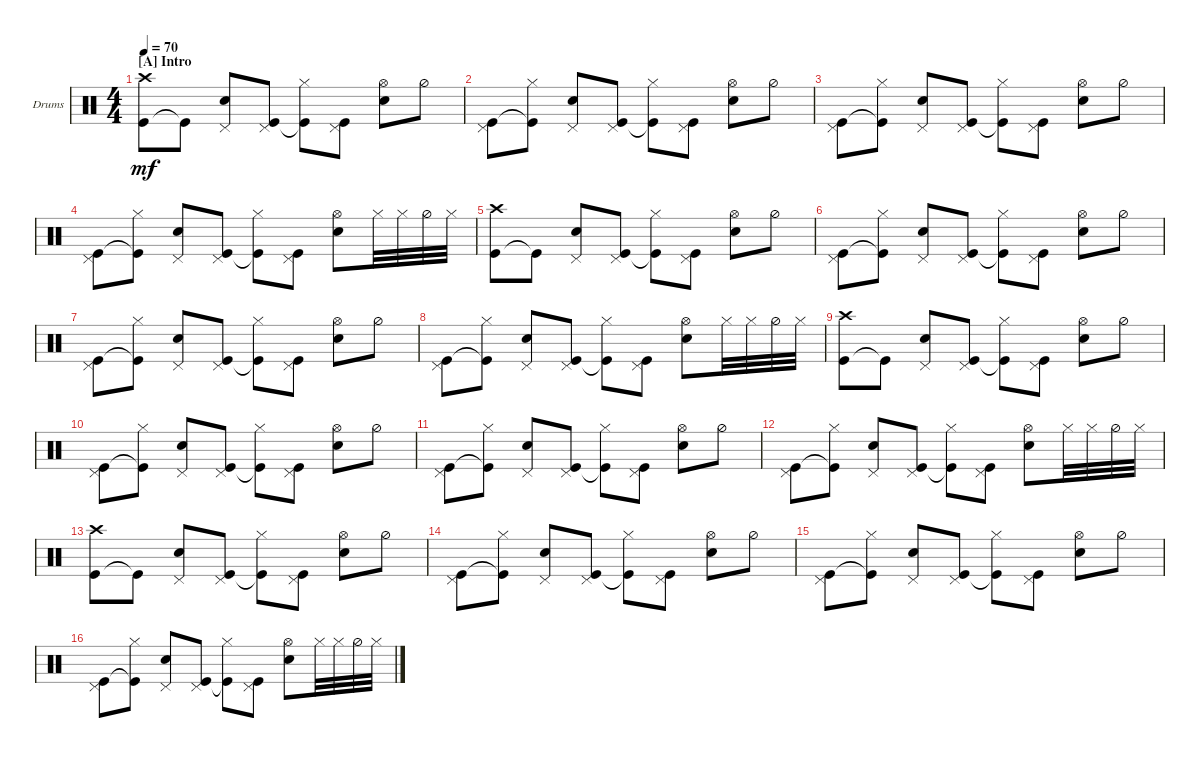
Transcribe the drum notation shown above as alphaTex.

\defaultSystemsLayout 4
\bracketExtendMode groupsimilarinstruments
\firstSystemTrackNameOrientation horizontal
\otherSystemsTrackNameOrientation horizontal
\track ("Drum" "Drums") {multiBarRest instrument percussion}
\staff {score}
\articulation defaults
\ts (4 4)
\section ("A" "Intro")
\tempo 70
\clef neutral
\ks c
("Kick (hit)" "Crash high (hit)").8{dy mf} "Kick (hit)"{t}.8 ("Snare (hit) 2" "Pedal Hi-Hat (hit)").8 ("Kick (hit)" "Pedal Hi-Hat (hit)").8 ("Kick (hit)"{t} "Hi-Hat (closed)").8 ("Kick (hit)" "Pedal Hi-Hat (hit)").8 ("Snare (hit) 2" "Hi-Hat (open)").8 "Hi-Hat (half)".8 |
("Kick (hit)" "Pedal Hi-Hat (hit)").8 ("Kick (hit)"{t} "Hi-Hat (closed)").8 ("Snare (hit) 2" "Pedal Hi-Hat (hit)").8 ("Kick (hit)" "Pedal Hi-Hat (hit)").8 ("Kick (hit)"{t} "Hi-Hat (closed)").8 ("Kick (hit)" "Pedal Hi-Hat (hit)").8 ("Snare (hit) 2" "Hi-Hat (open)").8 "Hi-Hat (half)".8 |
("Kick (hit)" "Pedal Hi-Hat (hit)").8 ("Kick (hit)"{t} "Hi-Hat (closed)").8 ("Snare (hit) 2" "Pedal Hi-Hat (hit)").8 ("Kick (hit)" "Pedal Hi-Hat (hit)").8 ("Kick (hit)"{t} "Hi-Hat (closed)").8 ("Kick (hit)" "Pedal Hi-Hat (hit)").8 ("Snare (hit) 2" "Hi-Hat (open)").8 "Hi-Hat (half)".8 |
("Kick (hit)" "Pedal Hi-Hat (hit)").8 ("Kick (hit)"{t} "Hi-Hat (closed)").8 ("Snare (hit) 2" "Pedal Hi-Hat (hit)").8 ("Kick (hit)" "Pedal Hi-Hat (hit)").8 ("Kick (hit)"{t} "Hi-Hat (closed)").8 ("Kick (hit)" "Pedal Hi-Hat (hit)").8 ("Snare (hit) 2" "Hi-Hat (open)").8 "Hi-Hat (closed)".32 "Hi-Hat (closed)".32 "Hi-Hat (half)".32 "Hi-Hat (closed)".32 |
("Kick (hit)" "Crash high (hit)").8 "Kick (hit)"{t}.8 ("Snare (hit) 2" "Pedal Hi-Hat (hit)").8 ("Kick (hit)" "Pedal Hi-Hat (hit)").8 ("Kick (hit)"{t} "Hi-Hat (closed)").8 ("Kick (hit)" "Pedal Hi-Hat (hit)").8 ("Snare (hit) 2" "Hi-Hat (open)").8 "Hi-Hat (half)".8 |
("Kick (hit)" "Pedal Hi-Hat (hit)").8 ("Kick (hit)"{t} "Hi-Hat (closed)").8 ("Snare (hit) 2" "Pedal Hi-Hat (hit)").8 ("Kick (hit)" "Pedal Hi-Hat (hit)").8 ("Kick (hit)"{t} "Hi-Hat (closed)").8 ("Kick (hit)" "Pedal Hi-Hat (hit)").8 ("Snare (hit) 2" "Hi-Hat (open)").8 "Hi-Hat (half)".8 |
("Kick (hit)" "Pedal Hi-Hat (hit)").8 ("Kick (hit)"{t} "Hi-Hat (closed)").8 ("Snare (hit) 2" "Pedal Hi-Hat (hit)").8 ("Kick (hit)" "Pedal Hi-Hat (hit)").8 ("Kick (hit)"{t} "Hi-Hat (closed)").8 ("Kick (hit)" "Pedal Hi-Hat (hit)").8 ("Snare (hit) 2" "Hi-Hat (open)").8 "Hi-Hat (half)".8 |
("Kick (hit)" "Pedal Hi-Hat (hit)").8 ("Kick (hit)"{t} "Hi-Hat (closed)").8 ("Snare (hit) 2" "Pedal Hi-Hat (hit)").8 ("Kick (hit)" "Pedal Hi-Hat (hit)").8 ("Kick (hit)"{t} "Hi-Hat (closed)").8 ("Kick (hit)" "Pedal Hi-Hat (hit)").8 ("Snare (hit) 2" "Hi-Hat (open)").8 "Hi-Hat (closed)".32 "Hi-Hat (closed)".32 "Hi-Hat (half)".32 "Hi-Hat (closed)".32 |
("Kick (hit)" "Crash high (hit)").8 "Kick (hit)"{t}.8 ("Snare (hit) 2" "Pedal Hi-Hat (hit)").8 ("Kick (hit)" "Pedal Hi-Hat (hit)").8 ("Kick (hit)"{t} "Hi-Hat (closed)").8 ("Kick (hit)" "Pedal Hi-Hat (hit)").8 ("Snare (hit) 2" "Hi-Hat (open)").8 "Hi-Hat (half)".8 |
("Kick (hit)" "Pedal Hi-Hat (hit)").8 ("Kick (hit)"{t} "Hi-Hat (closed)").8 ("Snare (hit) 2" "Pedal Hi-Hat (hit)").8 ("Kick (hit)" "Pedal Hi-Hat (hit)").8 ("Kick (hit)"{t} "Hi-Hat (closed)").8 ("Kick (hit)" "Pedal Hi-Hat (hit)").8 ("Snare (hit) 2" "Hi-Hat (open)").8 "Hi-Hat (half)".8 |
("Kick (hit)" "Pedal Hi-Hat (hit)").8 ("Kick (hit)"{t} "Hi-Hat (closed)").8 ("Snare (hit) 2" "Pedal Hi-Hat (hit)").8 ("Kick (hit)" "Pedal Hi-Hat (hit)").8 ("Kick (hit)"{t} "Hi-Hat (closed)").8 ("Kick (hit)" "Pedal Hi-Hat (hit)").8 ("Snare (hit) 2" "Hi-Hat (open)").8 "Hi-Hat (half)".8 |
("Kick (hit)" "Pedal Hi-Hat (hit)").8 ("Kick (hit)"{t} "Hi-Hat (closed)").8 ("Snare (hit) 2" "Pedal Hi-Hat (hit)").8 ("Kick (hit)" "Pedal Hi-Hat (hit)").8 ("Kick (hit)"{t} "Hi-Hat (closed)").8 ("Kick (hit)" "Pedal Hi-Hat (hit)").8 ("Snare (hit) 2" "Hi-Hat (open)").8 "Hi-Hat (closed)".32 "Hi-Hat (closed)".32 "Hi-Hat (half)".32 "Hi-Hat (closed)".32 |
("Kick (hit)" "Crash high (hit)").8 "Kick (hit)"{t}.8 ("Snare (hit) 2" "Pedal Hi-Hat (hit)").8 ("Kick (hit)" "Pedal Hi-Hat (hit)").8 ("Kick (hit)"{t} "Hi-Hat (closed)").8 ("Kick (hit)" "Pedal Hi-Hat (hit)").8 ("Snare (hit) 2" "Hi-Hat (open)").8 "Hi-Hat (half)".8 |
("Kick (hit)" "Pedal Hi-Hat (hit)").8 ("Kick (hit)"{t} "Hi-Hat (closed)").8 ("Snare (hit) 2" "Pedal Hi-Hat (hit)").8 ("Kick (hit)" "Pedal Hi-Hat (hit)").8 ("Kick (hit)"{t} "Hi-Hat (closed)").8 ("Kick (hit)" "Pedal Hi-Hat (hit)").8 ("Snare (hit) 2" "Hi-Hat (open)").8 "Hi-Hat (half)".8 |
("Kick (hit)" "Pedal Hi-Hat (hit)").8 ("Kick (hit)"{t} "Hi-Hat (closed)").8 ("Snare (hit) 2" "Pedal Hi-Hat (hit)").8 ("Kick (hit)" "Pedal Hi-Hat (hit)").8 ("Kick (hit)"{t} "Hi-Hat (closed)").8 ("Kick (hit)" "Pedal Hi-Hat (hit)").8 ("Snare (hit) 2" "Hi-Hat (open)").8 "Hi-Hat (half)".8 |
("Kick (hit)" "Pedal Hi-Hat (hit)").8 ("Kick (hit)"{t} "Hi-Hat (closed)").8 ("Snare (hit) 2" "Pedal Hi-Hat (hit)").8 ("Kick (hit)" "Pedal Hi-Hat (hit)").8 ("Kick (hit)"{t} "Hi-Hat (closed)").8 ("Kick (hit)" "Pedal Hi-Hat (hit)").8 ("Snare (hit) 2" "Hi-Hat (open)").8 "Hi-Hat (closed)".32 "Hi-Hat (closed)".32 "Hi-Hat (half)".32 "Hi-Hat (closed)".32
